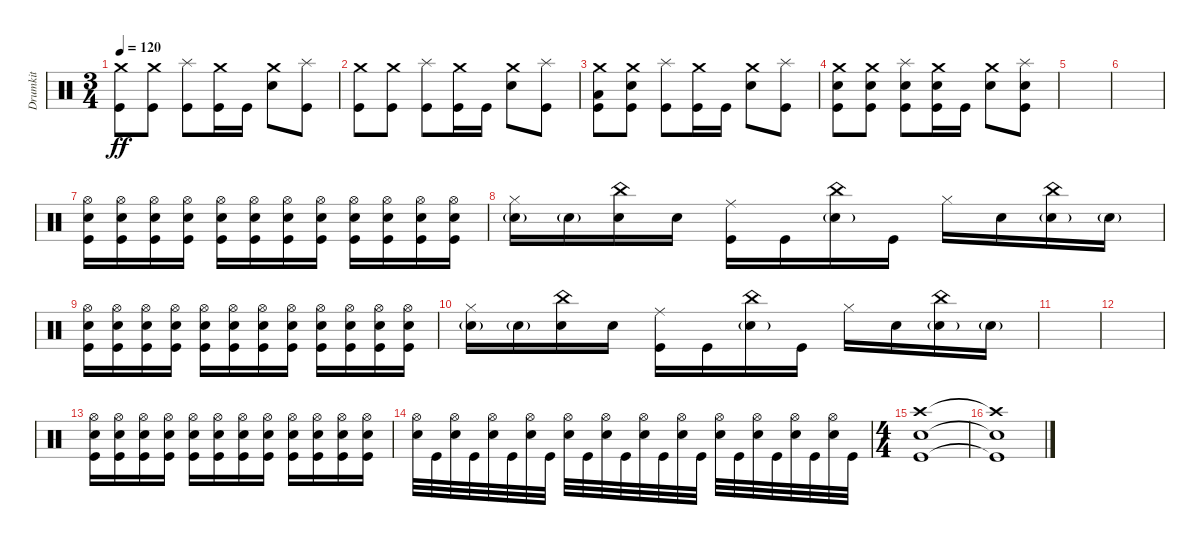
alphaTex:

\track ("Drumkit" "Drumkit") {instrument percussion}
\staff {score}
\articulation defaults
\ts (3 4)
\tempo 120
\clef neutral
\ks c
("Crash medium (hit)" "Kick (hit)").8{dy ff} ("Kick (hit)" "Crash medium (hit)").8 ("Kick (hit)" "Splash (hit)").8 ("Crash medium (hit)" "Kick (hit)").16 "Kick (hit)".16 ("Crash medium (hit)" "Snare (hit) 2").8 ("Kick (hit)" "Splash (hit)").8 |
("Crash medium (hit)" "Kick (hit)").8 ("Kick (hit)" "Crash medium (hit)").8 ("Kick (hit)" "Splash (hit)").8 ("Crash medium (hit)" "Kick (hit)").16 "Kick (hit)".16 ("Crash medium (hit)" "Snare (hit) 2").8 ("Kick (hit)" "Splash (hit)").8 |
("Crash medium (hit)" "Kick (hit)" "Low Tom (hit)").8 ("Kick (hit)" "Crash medium (hit)" "Snare (hit) 2").8 ("Kick (hit)" "Splash (hit)").8 ("Crash medium (hit)" "Kick (hit)").16 "Kick (hit)".16 ("Crash medium (hit)" "Snare (hit) 2").8 ("Kick (hit)" "Splash (hit)").8 |
("Crash medium (hit)" "Kick (hit)" "Snare (hit) 2").8 ("Kick (hit)" "Crash medium (hit)" "Snare (hit) 2").8 ("Kick (hit)" "Splash (hit)" "Snare (hit) 2").8 ("Crash medium (hit)" "Kick (hit)" "Snare (hit) 2").16 "Kick (hit)".16 ("Crash medium (hit)" "Snare (hit) 2").8 ("Kick (hit)" "Splash (hit)" "Snare (hit) 2").8 |
|
|
("Hi-Hat (open)" "Snare (hit) 2" "Kick (hit)").16 ("Snare (hit) 2" "Hi-Hat (open)" "Kick (hit)").16 ("Hi-Hat (open)" "Snare (hit) 2" "Kick (hit)").16 ("Snare (hit) 2" "Hi-Hat (open)" "Kick (hit)").16 ("Hi-Hat (open)" "Snare (hit) 2" "Kick (hit)").16 ("Snare (hit) 2" "Hi-Hat (open)" "Kick (hit)").16 ("Hi-Hat (open)" "Snare (hit) 2" "Kick (hit)").16 ("Snare (hit) 2" "Hi-Hat (open)" "Kick (hit)").16 ("Hi-Hat (open)" "Snare (hit) 2" "Kick (hit)").16 ("Snare (hit) 2" "Hi-Hat (open)" "Kick (hit)").16 ("Hi-Hat (open)" "Snare (hit) 2" "Kick (hit)").16 ("Snare (hit) 2" "Hi-Hat (open)" "Kick (hit)").16 |
("Hi-Hat (closed)" "Snare (hit) 2"{g}).16 "Snare (hit) 2"{g}.16 ("Snare (hit) 2" "China (hit)").16 "Snare (hit) 2".16 ("Ride (middle)" "Kick (hit)").16 "Kick (hit)".16 ("Snare (hit) 2"{g} "China (hit)").16 "Kick (hit)".16 "Hi-Hat (closed)".16 "Snare (hit) 2".16 ("Snare (hit) 2"{g} "China (hit)").16 "Snare (hit) 2"{g}.16 |
("Hi-Hat (open)" "Snare (hit) 2" "Kick (hit)").16 ("Snare (hit) 2" "Hi-Hat (open)" "Kick (hit)").16 ("Hi-Hat (open)" "Snare (hit) 2" "Kick (hit)").16 ("Snare (hit) 2" "Hi-Hat (open)" "Kick (hit)").16 ("Hi-Hat (open)" "Snare (hit) 2" "Kick (hit)").16 ("Snare (hit) 2" "Hi-Hat (open)" "Kick (hit)").16 ("Hi-Hat (open)" "Snare (hit) 2" "Kick (hit)").16 ("Snare (hit) 2" "Hi-Hat (open)" "Kick (hit)").16 ("Hi-Hat (open)" "Snare (hit) 2" "Kick (hit)").16 ("Snare (hit) 2" "Hi-Hat (open)" "Kick (hit)").16 ("Hi-Hat (open)" "Snare (hit) 2" "Kick (hit)").16 ("Snare (hit) 2" "Hi-Hat (open)" "Kick (hit)").16 |
("Hi-Hat (closed)" "Snare (hit) 2"{g}).16 "Snare (hit) 2"{g}.16 ("Snare (hit) 2" "China (hit)").16 "Snare (hit) 2".16 ("Ride (middle)" "Kick (hit)").16 "Kick (hit)".16 ("Snare (hit) 2"{g} "China (hit)").16 "Kick (hit)".16 "Hi-Hat (closed)".16 "Snare (hit) 2".16 ("Snare (hit) 2"{g} "China (hit)").16 "Snare (hit) 2"{g}.16 |
|
|
("Hi-Hat (open)" "Snare (hit) 2" "Kick (hit)").16 ("Snare (hit) 2" "Hi-Hat (open)" "Kick (hit)").16 ("Hi-Hat (open)" "Snare (hit) 2" "Kick (hit)").16 ("Snare (hit) 2" "Hi-Hat (open)" "Kick (hit)").16 ("Hi-Hat (open)" "Snare (hit) 2" "Kick (hit)").16 ("Snare (hit) 2" "Hi-Hat (open)" "Kick (hit)").16 ("Hi-Hat (open)" "Snare (hit) 2" "Kick (hit)").16 ("Snare (hit) 2" "Hi-Hat (open)" "Kick (hit)").16 ("Hi-Hat (open)" "Snare (hit) 2" "Kick (hit)").16 ("Snare (hit) 2" "Hi-Hat (open)" "Kick (hit)").16 ("Hi-Hat (open)" "Snare (hit) 2" "Kick (hit)").16 ("Snare (hit) 2" "Hi-Hat (open)" "Kick (hit)").16 |
("Hi-Hat (open)" "Snare (hit) 2").32 "Kick (hit)".32 ("Snare (hit) 2" "Hi-Hat (open)").32 "Kick (hit)".32 ("Hi-Hat (open)" "Snare (hit) 2").32 "Kick (hit)".32 ("Snare (hit) 2" "Hi-Hat (open)").32 "Kick (hit)".32 ("Hi-Hat (open)" "Snare (hit) 2").32 "Kick (hit)".32 ("Snare (hit) 2" "Hi-Hat (open)").32 "Kick (hit)".32 ("Hi-Hat (open)" "Snare (hit) 2").32 "Kick (hit)".32 ("Snare (hit) 2" "Hi-Hat (open)").32 "Kick (hit)".32 ("Hi-Hat (open)" "Snare (hit) 2").32 "Kick (hit)".32 ("Snare (hit) 2" "Hi-Hat (open)").32 "Kick (hit)".32 ("Hi-Hat (open)" "Snare (hit) 2").32 "Kick (hit)".32 ("Snare (hit) 2" "Hi-Hat (open)").32 "Kick (hit)".32 |
\ts (4 4)
("Crash high (hit)" "Snare (hit) 2" "Kick (hit)").1 |
("Crash high (hit)"{t} "Snare (hit) 2"{t} "Kick (hit)"{t}).1
